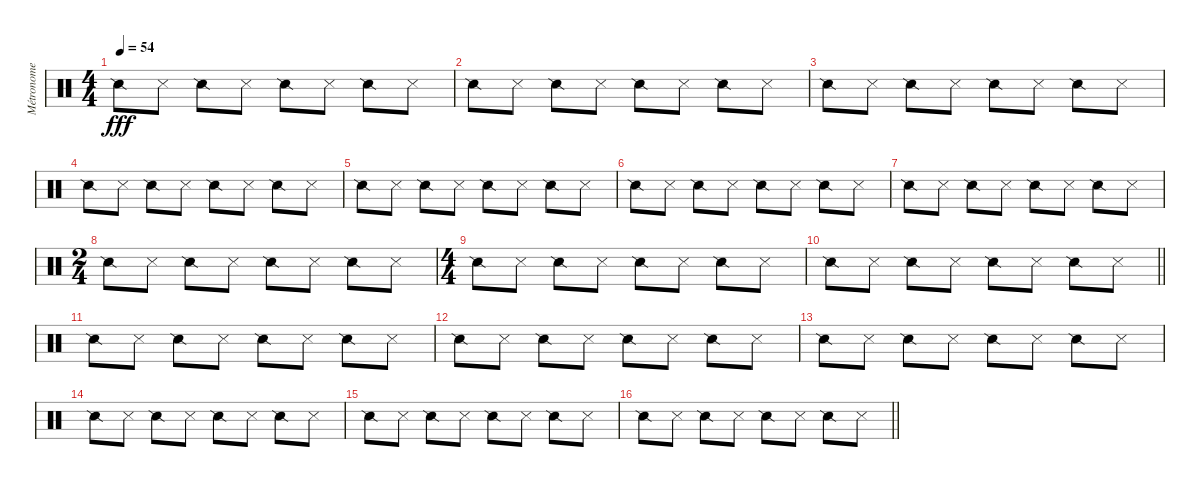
\track ("Métronome" "Métronome") {mute instrument percussion}
\staff {score}
\articulation defaults
\ts (4 4)
\tempo 54
\clef neutral
\ks c "Snare (side stick) 2".8{dy fff} "Metronome (hit)".8 "Snare (side stick) 2".8 "Metronome (hit)".8 "Snare (side stick) 2".8 "Metronome (hit)".8 "Snare (side stick) 2".8 "Metronome (hit)".8
|
"Snare (side stick) 2".8 "Metronome (hit)".8 "Snare (side stick) 2".8 "Metronome (hit)".8 "Snare (side stick) 2".8 "Metronome (hit)".8 "Snare (side stick) 2".8 "Metronome (hit)".8 |
"Snare (side stick) 2".8 "Metronome (hit)".8 "Snare (side stick) 2".8 "Metronome (hit)".8 "Snare (side stick) 2".8 "Metronome (hit)".8 "Snare (side stick) 2".8 "Metronome (hit)".8 |
"Snare (side stick) 2".8 "Metronome (hit)".8 "Snare (side stick) 2".8 "Metronome (hit)".8 "Snare (side stick) 2".8 "Metronome (hit)".8 "Snare (side stick) 2".8 "Metronome (hit)".8 |
"Snare (side stick) 2".8 "Metronome (hit)".8 "Snare (side stick) 2".8 "Metronome (hit)".8 "Snare (side stick) 2".8 "Metronome (hit)".8 "Snare (side stick) 2".8 "Metronome (hit)".8 |
"Snare (side stick) 2".8 "Metronome (hit)".8 "Snare (side stick) 2".8 "Metronome (hit)".8 "Snare (side stick) 2".8 "Metronome (hit)".8 "Snare (side stick) 2".8 "Metronome (hit)".8 |
"Snare (side stick) 2".8 "Metronome (hit)".8 "Snare (side stick) 2".8 "Metronome (hit)".8 "Snare (side stick) 2".8 "Metronome (hit)".8 "Snare (side stick) 2".8 "Metronome (hit)".8 |
\ts (2 4)
"Snare (side stick) 2".8 "Metronome (hit)".8 "Snare (side stick) 2".8 "Metronome (hit)".8 "Snare (side stick) 2".8 "Metronome (hit)".8 "Snare (side stick) 2".8 "Metronome (hit)".8 |
\ts (4 4)
"Snare (side stick) 2".8 "Metronome (hit)".8 "Snare (side stick) 2".8 "Metronome (hit)".8 "Snare (side stick) 2".8 "Metronome (hit)".8 "Snare (side stick) 2".8 "Metronome (hit)".8 |
\barLineRight lightlight "Snare (side stick) 2".8 "Metronome (hit)".8 "Snare (side stick) 2".8 "Metronome (hit)".8 "Snare (side stick) 2".8 "Metronome (hit)".8 "Snare (side stick) 2".8 "Metronome (hit)".8
|
"Snare (side stick) 2".8 "Metronome (hit)".8 "Snare (side stick) 2".8 "Metronome (hit)".8 "Snare (side stick) 2".8 "Metronome (hit)".8 "Snare (side stick) 2".8 "Metronome (hit)".8 |
"Snare (side stick) 2".8 "Metronome (hit)".8 "Snare (side stick) 2".8 "Metronome (hit)".8 "Snare (side stick) 2".8 "Metronome (hit)".8 "Snare (side stick) 2".8 "Metronome (hit)".8 |
"Snare (side stick) 2".8 "Metronome (hit)".8 "Snare (side stick) 2".8 "Metronome (hit)".8 "Snare (side stick) 2".8 "Metronome (hit)".8 "Snare (side stick) 2".8 "Metronome (hit)".8 |
"Snare (side stick) 2".8 "Metronome (hit)".8 "Snare (side stick) 2".8 "Metronome (hit)".8 "Snare (side stick) 2".8 "Metronome (hit)".8 "Snare (side stick) 2".8 "Metronome (hit)".8 |
"Snare (side stick) 2".8 "Metronome (hit)".8 "Snare (side stick) 2".8 "Metronome (hit)".8 "Snare (side stick) 2".8 "Metronome (hit)".8 "Snare (side stick) 2".8 "Metronome (hit)".8 |
\barLineRight lightlight "Snare (side stick) 2".8 "Metronome (hit)".8 "Snare (side stick) 2".8 "Metronome (hit)".8 "Snare (side stick) 2".8 "Metronome (hit)".8 "Snare (side stick) 2".8 "Metronome (hit)".8
